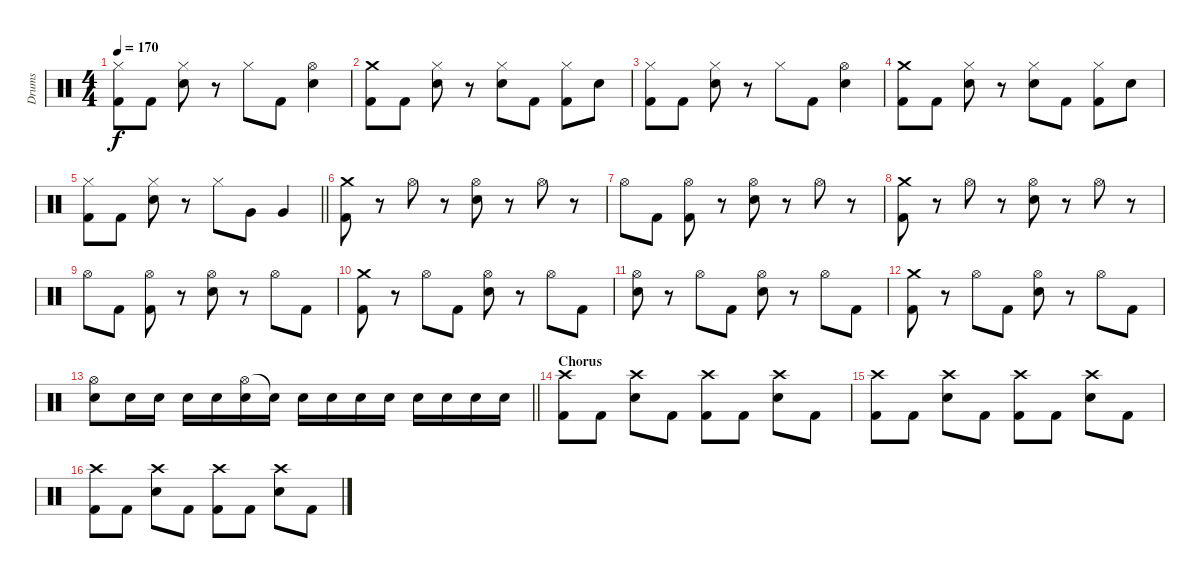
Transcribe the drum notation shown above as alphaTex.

\track ("Drums" "Drums") {instrument percussion}
\staff {score}
\articulation defaults
\ts (4 4)
\tempo 170
\clef neutral
\ks c
("Hi-Hat (closed)" "Kick (hit) 2").8{dy f} "Kick (hit) 2".8 ("Hi-Hat (closed)" "Snare (hit) 2").8 r.8 "Hi-Hat (closed)".8 "Kick (hit) 2".8 ("Hi-Hat (open)" "Snare (hit) 2").4 |
("Crash medium (hit)" "Kick (hit) 2").8 "Kick (hit) 2".8 ("Hi-Hat (closed)" "Snare (hit) 2").8 r.8 ("Hi-Hat (closed)" "Snare (hit) 2").8 "Kick (hit) 2".8 ("Hi-Hat (closed)" "Kick (hit) 2").8 "Snare (hit) 2".8 |
("Hi-Hat (closed)" "Kick (hit) 2").8 "Kick (hit) 2".8 ("Hi-Hat (closed)" "Snare (hit) 2").8 r.8 "Hi-Hat (closed)".8 "Kick (hit) 2".8 ("Hi-Hat (open)" "Snare (hit) 2").4 |
("Crash medium (hit)" "Kick (hit) 2").8 "Kick (hit) 2".8 ("Hi-Hat (closed)" "Snare (hit) 2").8 r.8 ("Hi-Hat (closed)" "Snare (hit) 2").8 "Kick (hit) 2".8 ("Hi-Hat (closed)" "Kick (hit) 2").8 "Snare (hit) 2".8 |
\barLineRight lightlight
("Hi-Hat (closed)" "Kick (hit) 2").8 "Kick (hit) 2".8 ("Hi-Hat (closed)" "Snare (hit) 2").8 r.8 "Hi-Hat (closed)".8 "Very Low Tom (hit)".8 "Very Low Tom (hit)".4 |
("Crash medium (hit)" "Kick (hit) 2").8 r.8 "Hi-Hat (open)".8 r.8 ("Hi-Hat (open)" "Snare (hit) 2").8 r.8 "Hi-Hat (open)".8 r.8 |
"Hi-Hat (open)".8 "Kick (hit) 2".8 ("Hi-Hat (open)" "Kick (hit) 2").8 r.8 ("Hi-Hat (open)" "Snare (hit) 2").8 r.8 "Hi-Hat (open)".8 r.8 |
("Crash medium (hit)" "Kick (hit) 2").8 r.8 "Hi-Hat (open)".8 r.8 ("Hi-Hat (open)" "Snare (hit) 2").8 r.8 "Hi-Hat (open)".8 r.8 |
"Hi-Hat (open)".8 "Kick (hit) 2".8 ("Hi-Hat (open)" "Kick (hit) 2").8 r.8 ("Hi-Hat (open)" "Snare (hit) 2").8 r.8 "Hi-Hat (open)".8 "Kick (hit) 2".8 |
("Crash medium (hit)" "Kick (hit) 2").8 r.8 "Hi-Hat (open)".8 "Kick (hit) 2".8 ("Hi-Hat (open)" "Snare (hit) 2").8 r.8 "Hi-Hat (open)".8 "Kick (hit) 2".8 |
("Hi-Hat (open)" "Snare (hit) 2").8 r.8 "Hi-Hat (open)".8 "Kick (hit) 2".8 ("Hi-Hat (open)" "Snare (hit) 2").8 r.8 "Hi-Hat (open)".8 "Kick (hit) 2".8 |
("Crash medium (hit)" "Kick (hit) 2").8 r.8 "Hi-Hat (open)".8 "Kick (hit) 2".8 ("Hi-Hat (open)" "Snare (hit) 2").8 r.8 "Hi-Hat (open)".8 "Kick (hit) 2".8 |
\barLineRight lightlight
("Hi-Hat (open)" "Snare (hit) 2").8 "Snare (hit) 2".16 "Snare (hit) 2".16 "Snare (hit) 2".16 "Snare (hit) 2".16 ("Hi-Hat (open)" "Snare (hit) 2").16 "Snare (hit) 2"{t}.16 "Snare (hit) 2".16 "Snare (hit) 2".16 "Snare (hit) 2".16 "Snare (hit) 2".16 "Snare (hit) 2".16 "Snare (hit) 2".16 "Snare (hit) 2".16 "Snare (hit) 2".16 |
\section ("" "Chorus")
("Crash high (hit)" "Kick (hit) 2").8 "Kick (hit) 2".8 ("Crash high (hit)" "Snare (hit) 2").8 "Kick (hit) 2".8 ("Crash high (hit)" "Kick (hit) 2").8 "Kick (hit) 2".8 ("Crash high (hit)" "Snare (hit) 2").8 "Kick (hit) 2".8 |
("Crash high (hit)" "Kick (hit) 2").8 "Kick (hit) 2".8 ("Crash high (hit)" "Snare (hit) 2").8 "Kick (hit) 2".8 ("Crash high (hit)" "Kick (hit) 2").8 "Kick (hit) 2".8 ("Crash high (hit)" "Snare (hit) 2").8 "Kick (hit) 2".8 |
("Crash high (hit)" "Kick (hit) 2").8 "Kick (hit) 2".8 ("Crash high (hit)" "Snare (hit) 2").8 "Kick (hit) 2".8 ("Crash high (hit)" "Kick (hit) 2").8 "Kick (hit) 2".8 ("Crash high (hit)" "Snare (hit) 2").8 "Kick (hit) 2".8
